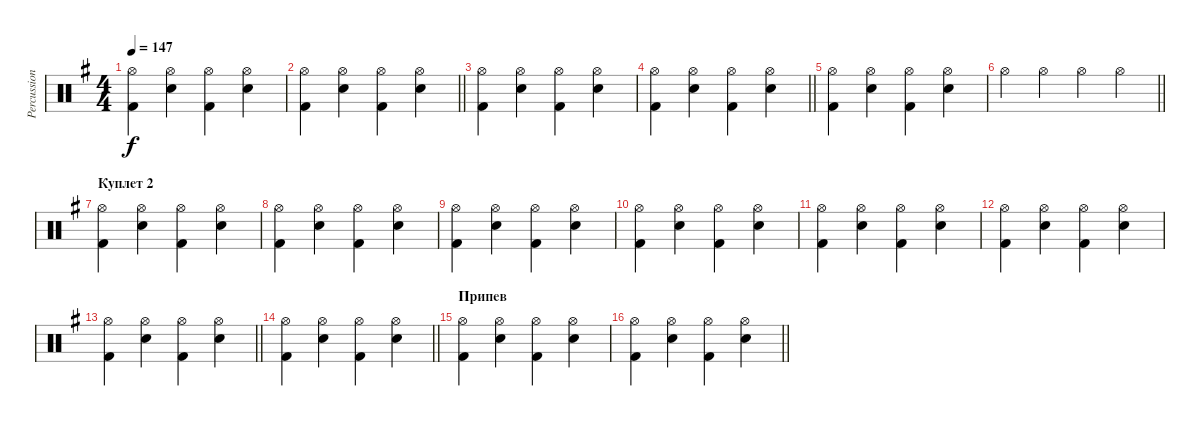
\track ("Percussion" "Percussion") {instrument percussion}
\staff {score}
\articulation defaults
\ts (4 4)
\tempo 147
\clef neutral
\ks eminor
("Hi-Hat (open)" "Kick (hit) 2").4{dy f} ("Hi-Hat (open)" "Snare (hit) 2").4 ("Hi-Hat (open)" "Kick (hit) 2").4 ("Hi-Hat (open)" "Snare (hit) 2").4 |
\barLineRight lightlight
("Hi-Hat (open)" "Kick (hit) 2").4 ("Hi-Hat (open)" "Snare (hit) 2").4 ("Hi-Hat (open)" "Kick (hit) 2").4 ("Hi-Hat (open)" "Snare (hit) 2").4 |
("Hi-Hat (open)" "Kick (hit) 2").4 ("Hi-Hat (open)" "Snare (hit) 2").4 ("Hi-Hat (open)" "Kick (hit) 2").4 ("Hi-Hat (open)" "Snare (hit) 2").4 |
\barLineRight lightlight
("Hi-Hat (open)" "Kick (hit) 2").4 ("Hi-Hat (open)" "Snare (hit) 2").4 ("Hi-Hat (open)" "Kick (hit) 2").4 ("Hi-Hat (open)" "Snare (hit) 2").4 |
("Hi-Hat (open)" "Kick (hit) 2").4 ("Hi-Hat (open)" "Snare (hit) 2").4 ("Hi-Hat (open)" "Kick (hit) 2").4 ("Hi-Hat (open)" "Snare (hit) 2").4 |
\barLineRight lightlight "Hi-Hat (open)".4 "Hi-Hat (open)".4 "Hi-Hat (open)".4 "Hi-Hat (open)".4
|
\section ("" "Куплет 2")
("Hi-Hat (open)" "Kick (hit) 2").4 ("Hi-Hat (open)" "Snare (hit) 2").4 ("Hi-Hat (open)" "Kick (hit) 2").4 ("Hi-Hat (open)" "Snare (hit) 2").4 |
("Hi-Hat (open)" "Kick (hit) 2").4 ("Hi-Hat (open)" "Snare (hit) 2").4 ("Hi-Hat (open)" "Kick (hit) 2").4 ("Hi-Hat (open)" "Snare (hit) 2").4 |
("Hi-Hat (open)" "Kick (hit) 2").4 ("Hi-Hat (open)" "Snare (hit) 2").4 ("Hi-Hat (open)" "Kick (hit) 2").4 ("Hi-Hat (open)" "Snare (hit) 2").4 |
("Hi-Hat (open)" "Kick (hit) 2").4 ("Hi-Hat (open)" "Snare (hit) 2").4 ("Hi-Hat (open)" "Kick (hit) 2").4 ("Hi-Hat (open)" "Snare (hit) 2").4 |
("Hi-Hat (open)" "Kick (hit) 2").4 ("Hi-Hat (open)" "Snare (hit) 2").4 ("Hi-Hat (open)" "Kick (hit) 2").4 ("Hi-Hat (open)" "Snare (hit) 2").4 |
("Hi-Hat (open)" "Kick (hit) 2").4 ("Hi-Hat (open)" "Snare (hit) 2").4 ("Hi-Hat (open)" "Kick (hit) 2").4 ("Hi-Hat (open)" "Snare (hit) 2").4 |
\barLineRight lightlight
("Hi-Hat (open)" "Kick (hit) 2").4 ("Hi-Hat (open)" "Snare (hit) 2").4 ("Hi-Hat (open)" "Kick (hit) 2").4 ("Hi-Hat (open)" "Snare (hit) 2").4 |
\barLineRight lightlight
("Hi-Hat (open)" "Kick (hit) 2").4 ("Hi-Hat (open)" "Snare (hit) 2").4 ("Hi-Hat (open)" "Kick (hit) 2").4 ("Hi-Hat (open)" "Snare (hit) 2").4 |
\section ("" "Припев")
("Hi-Hat (open)" "Kick (hit) 2").4 ("Hi-Hat (open)" "Snare (hit) 2").4 ("Hi-Hat (open)" "Kick (hit) 2").4 ("Hi-Hat (open)" "Snare (hit) 2").4 |
\barLineRight lightlight
("Hi-Hat (open)" "Kick (hit) 2").4 ("Hi-Hat (open)" "Snare (hit) 2").4 ("Hi-Hat (open)" "Kick (hit) 2").4 ("Hi-Hat (open)" "Snare (hit) 2").4
